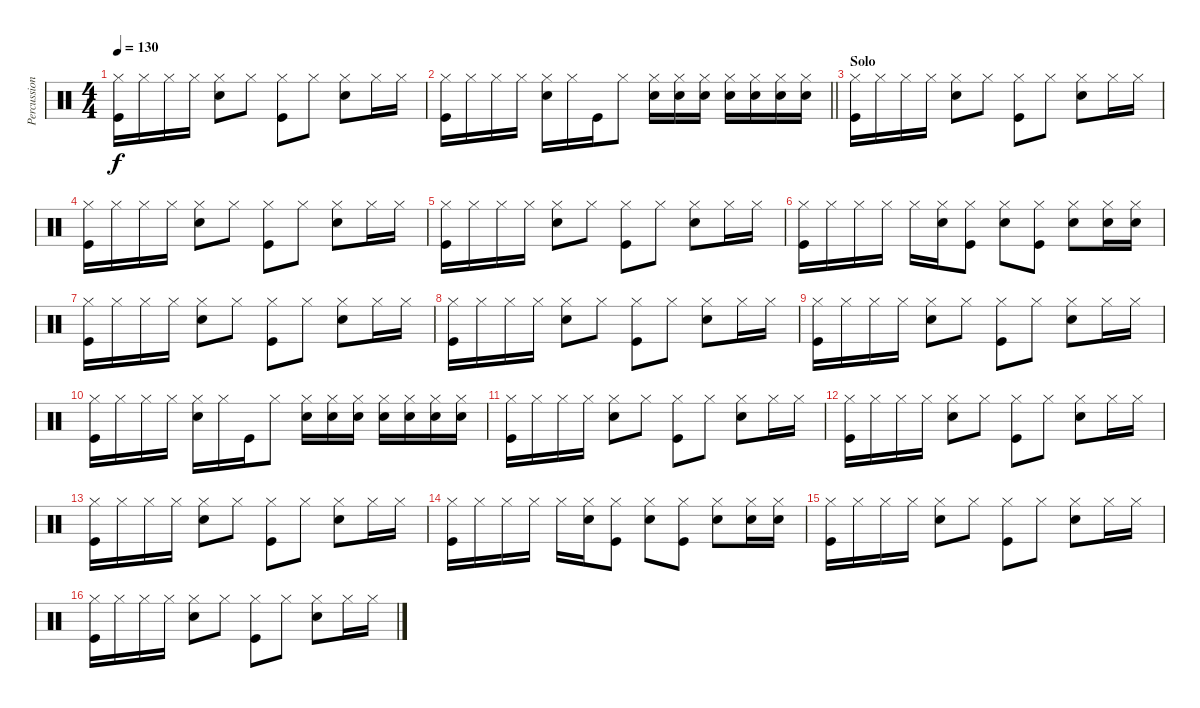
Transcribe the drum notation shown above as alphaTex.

\track ("Percussions" "Percussion") {instrument percussion}
\staff {score}
\articulation defaults
\ts (4 4)
\tempo 130
\clef neutral
\ks c
("Hi-Hat (closed)" "Kick (hit)").16{dy f} "Hi-Hat (closed)".16 "Hi-Hat (closed)".16 "Hi-Hat (closed)".16 ("Hi-Hat (closed)" "Snare (hit) 2").8 "Hi-Hat (closed)".8 ("Hi-Hat (closed)" "Kick (hit)").8 "Hi-Hat (closed)".8 ("Hi-Hat (closed)" "Snare (hit) 2").8 "Hi-Hat (closed)".16 "Hi-Hat (closed)".16 |
\barLineRight lightlight
("Hi-Hat (closed)" "Kick (hit)").16 "Hi-Hat (closed)".16 "Hi-Hat (closed)".16 "Hi-Hat (closed)".16 ("Hi-Hat (closed)" "Snare (hit) 2").16 "Hi-Hat (closed)".16 "Kick (hit)".16 "Hi-Hat (closed)".8 ("Hi-Hat (closed)" "Snare (hit) 2").16 ("Hi-Hat (closed)" "Snare (hit) 2").16 ("Hi-Hat (closed)" "Snare (hit) 2").16 ("Hi-Hat (closed)" "Snare (hit) 2").16 ("Hi-Hat (closed)" "Snare (hit) 2").16 ("Hi-Hat (closed)" "Snare (hit) 2").16 ("Hi-Hat (closed)" "Snare (hit) 2").16 |
\section ("" "Solo")
("Hi-Hat (closed)" "Kick (hit)").16 "Hi-Hat (closed)".16 "Hi-Hat (closed)".16 "Hi-Hat (closed)".16 ("Hi-Hat (closed)" "Snare (hit) 2").8 "Hi-Hat (closed)".8 ("Hi-Hat (closed)" "Kick (hit)").8 "Hi-Hat (closed)".8 ("Hi-Hat (closed)" "Snare (hit) 2").8 "Hi-Hat (closed)".16 "Hi-Hat (closed)".16 |
("Hi-Hat (closed)" "Kick (hit)").16 "Hi-Hat (closed)".16 "Hi-Hat (closed)".16 "Hi-Hat (closed)".16 ("Hi-Hat (closed)" "Snare (hit) 2").8 "Hi-Hat (closed)".8 ("Hi-Hat (closed)" "Kick (hit)").8 "Hi-Hat (closed)".8 ("Hi-Hat (closed)" "Snare (hit) 2").8 "Hi-Hat (closed)".16 "Hi-Hat (closed)".16 |
("Hi-Hat (closed)" "Kick (hit)").16 "Hi-Hat (closed)".16 "Hi-Hat (closed)".16 "Hi-Hat (closed)".16 ("Hi-Hat (closed)" "Snare (hit) 2").8 "Hi-Hat (closed)".8 ("Hi-Hat (closed)" "Kick (hit)").8 "Hi-Hat (closed)".8 ("Hi-Hat (closed)" "Snare (hit) 2").8 "Hi-Hat (closed)".16 "Hi-Hat (closed)".16 |
("Hi-Hat (closed)" "Kick (hit)").16 "Hi-Hat (closed)".16 "Hi-Hat (closed)".16 "Hi-Hat (closed)".16 "Hi-Hat (closed)".16 ("Hi-Hat (closed)" "Snare (hit) 2").16 ("Hi-Hat (closed)" "Kick (hit)").8 ("Hi-Hat (closed)" "Snare (hit) 2").8 ("Hi-Hat (closed)" "Kick (hit)").8 ("Hi-Hat (closed)" "Snare (hit) 2").8 ("Hi-Hat (closed)" "Snare (hit) 2").16 ("Hi-Hat (closed)" "Snare (hit) 2").16 |
("Hi-Hat (closed)" "Kick (hit)").16 "Hi-Hat (closed)".16 "Hi-Hat (closed)".16 "Hi-Hat (closed)".16 ("Hi-Hat (closed)" "Snare (hit) 2").8 "Hi-Hat (closed)".8 ("Hi-Hat (closed)" "Kick (hit)").8 "Hi-Hat (closed)".8 ("Hi-Hat (closed)" "Snare (hit) 2").8 "Hi-Hat (closed)".16 "Hi-Hat (closed)".16 |
("Hi-Hat (closed)" "Kick (hit)").16 "Hi-Hat (closed)".16 "Hi-Hat (closed)".16 "Hi-Hat (closed)".16 ("Hi-Hat (closed)" "Snare (hit) 2").8 "Hi-Hat (closed)".8 ("Hi-Hat (closed)" "Kick (hit)").8 "Hi-Hat (closed)".8 ("Hi-Hat (closed)" "Snare (hit) 2").8 "Hi-Hat (closed)".16 "Hi-Hat (closed)".16 |
("Hi-Hat (closed)" "Kick (hit)").16 "Hi-Hat (closed)".16 "Hi-Hat (closed)".16 "Hi-Hat (closed)".16 ("Hi-Hat (closed)" "Snare (hit) 2").8 "Hi-Hat (closed)".8 ("Hi-Hat (closed)" "Kick (hit)").8 "Hi-Hat (closed)".8 ("Hi-Hat (closed)" "Snare (hit) 2").8 "Hi-Hat (closed)".16 "Hi-Hat (closed)".16 |
("Hi-Hat (closed)" "Kick (hit)").16 "Hi-Hat (closed)".16 "Hi-Hat (closed)".16 "Hi-Hat (closed)".16 ("Hi-Hat (closed)" "Snare (hit) 2").16 "Hi-Hat (closed)".16 "Kick (hit)".16 "Hi-Hat (closed)".8 ("Hi-Hat (closed)" "Snare (hit) 2").16 ("Hi-Hat (closed)" "Snare (hit) 2").16 ("Hi-Hat (closed)" "Snare (hit) 2").16 ("Hi-Hat (closed)" "Snare (hit) 2").16 ("Hi-Hat (closed)" "Snare (hit) 2").16 ("Hi-Hat (closed)" "Snare (hit) 2").16 ("Hi-Hat (closed)" "Snare (hit) 2").16 |
("Hi-Hat (closed)" "Kick (hit)").16 "Hi-Hat (closed)".16 "Hi-Hat (closed)".16 "Hi-Hat (closed)".16 ("Hi-Hat (closed)" "Snare (hit) 2").8 "Hi-Hat (closed)".8 ("Hi-Hat (closed)" "Kick (hit)").8 "Hi-Hat (closed)".8 ("Hi-Hat (closed)" "Snare (hit) 2").8 "Hi-Hat (closed)".16 "Hi-Hat (closed)".16 |
("Hi-Hat (closed)" "Kick (hit)").16 "Hi-Hat (closed)".16 "Hi-Hat (closed)".16 "Hi-Hat (closed)".16 ("Hi-Hat (closed)" "Snare (hit) 2").8 "Hi-Hat (closed)".8 ("Hi-Hat (closed)" "Kick (hit)").8 "Hi-Hat (closed)".8 ("Hi-Hat (closed)" "Snare (hit) 2").8 "Hi-Hat (closed)".16 "Hi-Hat (closed)".16 |
("Hi-Hat (closed)" "Kick (hit)").16 "Hi-Hat (closed)".16 "Hi-Hat (closed)".16 "Hi-Hat (closed)".16 ("Hi-Hat (closed)" "Snare (hit) 2").8 "Hi-Hat (closed)".8 ("Hi-Hat (closed)" "Kick (hit)").8 "Hi-Hat (closed)".8 ("Hi-Hat (closed)" "Snare (hit) 2").8 "Hi-Hat (closed)".16 "Hi-Hat (closed)".16 |
("Hi-Hat (closed)" "Kick (hit)").16 "Hi-Hat (closed)".16 "Hi-Hat (closed)".16 "Hi-Hat (closed)".16 "Hi-Hat (closed)".16 ("Hi-Hat (closed)" "Snare (hit) 2").16 ("Hi-Hat (closed)" "Kick (hit)").8 ("Hi-Hat (closed)" "Snare (hit) 2").8 ("Hi-Hat (closed)" "Kick (hit)").8 ("Hi-Hat (closed)" "Snare (hit) 2").8 ("Hi-Hat (closed)" "Snare (hit) 2").16 ("Hi-Hat (closed)" "Snare (hit) 2").16 |
("Hi-Hat (closed)" "Kick (hit)").16 "Hi-Hat (closed)".16 "Hi-Hat (closed)".16 "Hi-Hat (closed)".16 ("Hi-Hat (closed)" "Snare (hit) 2").8 "Hi-Hat (closed)".8 ("Hi-Hat (closed)" "Kick (hit)").8 "Hi-Hat (closed)".8 ("Hi-Hat (closed)" "Snare (hit) 2").8 "Hi-Hat (closed)".16 "Hi-Hat (closed)".16 |
("Hi-Hat (closed)" "Kick (hit)").16 "Hi-Hat (closed)".16 "Hi-Hat (closed)".16 "Hi-Hat (closed)".16 ("Hi-Hat (closed)" "Snare (hit) 2").8 "Hi-Hat (closed)".8 ("Hi-Hat (closed)" "Kick (hit)").8 "Hi-Hat (closed)".8 ("Hi-Hat (closed)" "Snare (hit) 2").8 "Hi-Hat (closed)".16 "Hi-Hat (closed)".16
